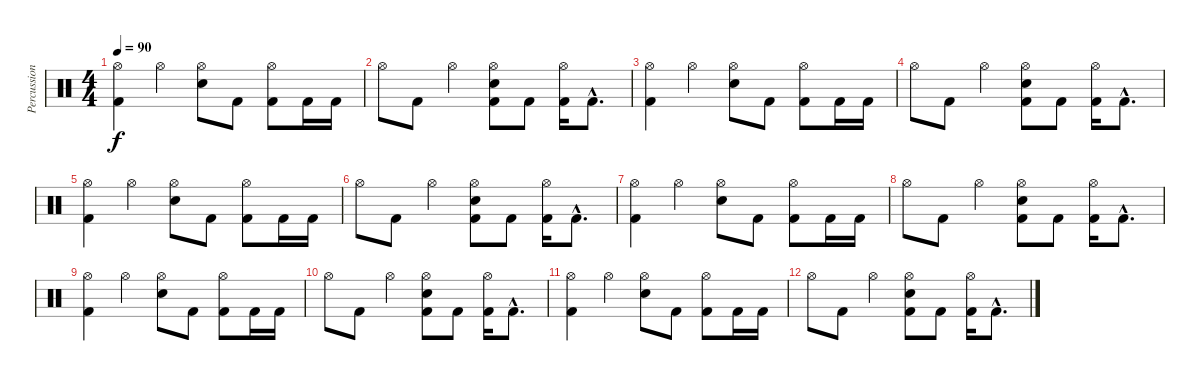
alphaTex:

\track ("Percussion" "Percussion") {instrument percussion}
\staff {score}
\articulation defaults
\ts (4 4)
\tempo 90
\clef neutral
\ks c
("Hi-Hat (open)" "Kick (hit) 2").4{dy f} "Hi-Hat (open)".4 ("Hi-Hat (open)" "Electric Snare (hit)").8 "Kick (hit) 2".8 ("Hi-Hat (open)" "Kick (hit) 2").8 "Kick (hit) 2".16 "Kick (hit) 2".16 |
"Hi-Hat (open)".8 "Kick (hit) 2".8 "Hi-Hat (open)".4 ("Hi-Hat (open)" "Electric Snare (hit)" "Kick (hit) 2").8 "Kick (hit) 2".8 ("Hi-Hat (open)" "Kick (hit) 2").16 "Kick (hit) 2"{hac}.8{d} |
("Hi-Hat (open)" "Kick (hit) 2").4 "Hi-Hat (open)".4 ("Hi-Hat (open)" "Electric Snare (hit)").8 "Kick (hit) 2".8 ("Hi-Hat (open)" "Kick (hit) 2").8 "Kick (hit) 2".16 "Kick (hit) 2".16 |
"Hi-Hat (open)".8 "Kick (hit) 2".8 "Hi-Hat (open)".4 ("Hi-Hat (open)" "Electric Snare (hit)" "Kick (hit) 2").8 "Kick (hit) 2".8 ("Hi-Hat (open)" "Kick (hit) 2").16 "Kick (hit) 2"{hac}.8{d} |
("Hi-Hat (open)" "Kick (hit) 2").4 "Hi-Hat (open)".4 ("Hi-Hat (open)" "Electric Snare (hit)").8 "Kick (hit) 2".8 ("Hi-Hat (open)" "Kick (hit) 2").8 "Kick (hit) 2".16 "Kick (hit) 2".16 |
"Hi-Hat (open)".8 "Kick (hit) 2".8 "Hi-Hat (open)".4 ("Hi-Hat (open)" "Electric Snare (hit)" "Kick (hit) 2").8 "Kick (hit) 2".8 ("Hi-Hat (open)" "Kick (hit) 2").16 "Kick (hit) 2"{hac}.8{d} |
("Hi-Hat (open)" "Kick (hit) 2").4 "Hi-Hat (open)".4 ("Hi-Hat (open)" "Electric Snare (hit)").8 "Kick (hit) 2".8 ("Hi-Hat (open)" "Kick (hit) 2").8 "Kick (hit) 2".16 "Kick (hit) 2".16 |
"Hi-Hat (open)".8 "Kick (hit) 2".8 "Hi-Hat (open)".4 ("Hi-Hat (open)" "Electric Snare (hit)" "Kick (hit) 2").8 "Kick (hit) 2".8 ("Hi-Hat (open)" "Kick (hit) 2").16 "Kick (hit) 2"{hac}.8{d} |
("Hi-Hat (open)" "Kick (hit) 2").4 "Hi-Hat (open)".4 ("Hi-Hat (open)" "Electric Snare (hit)").8 "Kick (hit) 2".8 ("Hi-Hat (open)" "Kick (hit) 2").8 "Kick (hit) 2".16 "Kick (hit) 2".16 |
"Hi-Hat (open)".8 "Kick (hit) 2".8 "Hi-Hat (open)".4 ("Hi-Hat (open)" "Electric Snare (hit)" "Kick (hit) 2").8 "Kick (hit) 2".8 ("Hi-Hat (open)" "Kick (hit) 2").16 "Kick (hit) 2"{hac}.8{d} |
("Hi-Hat (open)" "Kick (hit) 2").4 "Hi-Hat (open)".4 ("Hi-Hat (open)" "Electric Snare (hit)").8 "Kick (hit) 2".8 ("Hi-Hat (open)" "Kick (hit) 2").8 "Kick (hit) 2".16 "Kick (hit) 2".16 |
"Hi-Hat (open)".8 "Kick (hit) 2".8 "Hi-Hat (open)".4 ("Hi-Hat (open)" "Electric Snare (hit)" "Kick (hit) 2").8 "Kick (hit) 2".8 ("Hi-Hat (open)" "Kick (hit) 2").16 "Kick (hit) 2"{hac}.8{d}
